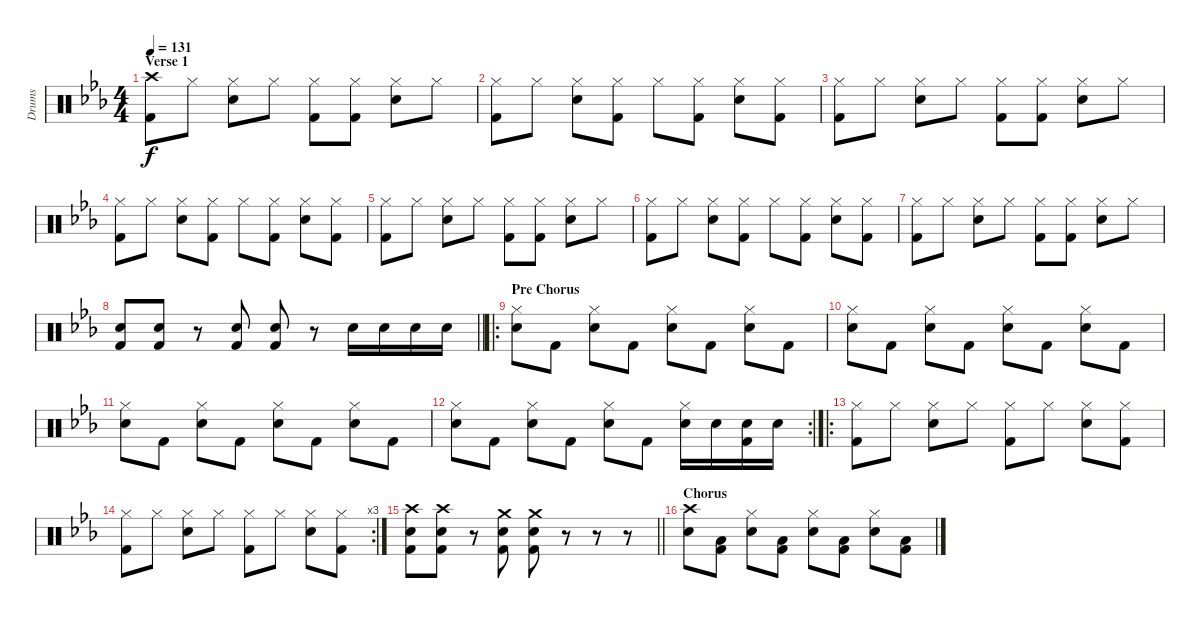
\track ("Drums" "Drums") {instrument percussion}
\staff
\articulation defaults
\ts (4 4)
\section ("" "Verse 1")
\tempo 131
\clef neutral
\ks eb
("Crash high (hit)" "Kick (hit) 2").8{dy f} "Hi-Hat (closed)".8 ("Snare (hit) 2" "Hi-Hat (closed)").8 "Hi-Hat (closed)".8 ("Hi-Hat (closed)" "Kick (hit) 2").8 ("Hi-Hat (closed)" "Kick (hit) 2").8 ("Snare (hit) 2" "Hi-Hat (closed)").8 "Hi-Hat (closed)".8 |
("Hi-Hat (closed)" "Kick (hit) 2").8 "Hi-Hat (closed)".8 ("Snare (hit) 2" "Hi-Hat (closed)").8 ("Hi-Hat (closed)" "Kick (hit) 2").8 "Hi-Hat (closed)".8 ("Hi-Hat (closed)" "Kick (hit) 2").8 ("Snare (hit) 2" "Hi-Hat (closed)").8 ("Hi-Hat (closed)" "Kick (hit) 2").8 |
("Hi-Hat (closed)" "Kick (hit) 2").8 "Hi-Hat (closed)".8 ("Snare (hit) 2" "Hi-Hat (closed)").8 "Hi-Hat (closed)".8 ("Hi-Hat (closed)" "Kick (hit) 2").8 ("Hi-Hat (closed)" "Kick (hit) 2").8 ("Snare (hit) 2" "Hi-Hat (closed)").8 "Hi-Hat (closed)".8 |
("Hi-Hat (closed)" "Kick (hit) 2").8 "Hi-Hat (closed)".8 ("Snare (hit) 2" "Hi-Hat (closed)").8 ("Hi-Hat (closed)" "Kick (hit) 2").8 "Hi-Hat (closed)".8 ("Hi-Hat (closed)" "Kick (hit) 2").8 ("Snare (hit) 2" "Hi-Hat (closed)").8 ("Hi-Hat (closed)" "Kick (hit) 2").8 |
("Hi-Hat (closed)" "Kick (hit) 2").8 "Hi-Hat (closed)".8 ("Snare (hit) 2" "Hi-Hat (closed)").8 "Hi-Hat (closed)".8 ("Hi-Hat (closed)" "Kick (hit) 2").8 ("Hi-Hat (closed)" "Kick (hit) 2").8 ("Snare (hit) 2" "Hi-Hat (closed)").8 "Hi-Hat (closed)".8 |
("Hi-Hat (closed)" "Kick (hit) 2").8 "Hi-Hat (closed)".8 ("Snare (hit) 2" "Hi-Hat (closed)").8 ("Hi-Hat (closed)" "Kick (hit) 2").8 "Hi-Hat (closed)".8 ("Hi-Hat (closed)" "Kick (hit) 2").8 ("Snare (hit) 2" "Hi-Hat (closed)").8 ("Hi-Hat (closed)" "Kick (hit) 2").8 |
("Hi-Hat (closed)" "Kick (hit) 2").8 "Hi-Hat (closed)".8 ("Snare (hit) 2" "Hi-Hat (closed)").8 "Hi-Hat (closed)".8 ("Hi-Hat (closed)" "Kick (hit) 2").8 ("Hi-Hat (closed)" "Kick (hit) 2").8 ("Snare (hit) 2" "Hi-Hat (closed)").8 "Hi-Hat (closed)".8 |
\barLineRight lightlight
("Snare (hit) 2" "Kick (hit) 2").8 ("Snare (hit) 2" "Kick (hit) 2").8 r.8 ("Snare (hit) 2" "Kick (hit) 2").8 ("Snare (hit) 2" "Kick (hit) 2").8 r.8 "Snare (hit) 2".16 "Snare (hit) 2".16 "Snare (hit) 2".16 "Snare (hit) 2".16 |
\ro
\section ("" "Pre Chorus")
("Snare (hit) 2" "Hi-Hat (closed)").8 "Kick (hit) 2".8 ("Snare (hit) 2" "Hi-Hat (closed)").8 "Kick (hit) 2".8 ("Snare (hit) 2" "Hi-Hat (closed)").8 "Kick (hit) 2".8 ("Snare (hit) 2" "Hi-Hat (closed)").8 "Kick (hit) 2".8 |
("Snare (hit) 2" "Hi-Hat (closed)").8 "Kick (hit) 2".8 ("Snare (hit) 2" "Hi-Hat (closed)").8 "Kick (hit) 2".8 ("Snare (hit) 2" "Hi-Hat (closed)").8 "Kick (hit) 2".8 ("Snare (hit) 2" "Hi-Hat (closed)").8 "Kick (hit) 2".8 |
("Snare (hit) 2" "Hi-Hat (closed)").8 "Kick (hit) 2".8 ("Snare (hit) 2" "Hi-Hat (closed)").8 "Kick (hit) 2".8 ("Snare (hit) 2" "Hi-Hat (closed)").8 "Kick (hit) 2".8 ("Snare (hit) 2" "Hi-Hat (closed)").8 "Kick (hit) 2".8 |
\rc 2
("Snare (hit) 2" "Hi-Hat (closed)").8 "Kick (hit) 2".8 ("Snare (hit) 2" "Hi-Hat (closed)").8 "Kick (hit) 2".8 ("Snare (hit) 2" "Hi-Hat (closed)").8 "Kick (hit) 2".8 ("Snare (hit) 2" "Hi-Hat (closed)").16 "Snare (hit) 2".16 ("Snare (hit) 2" "Kick (hit) 2").16 "Snare (hit) 2".16 |
\ro
("Hi-Hat (closed)" "Kick (hit) 2").8 "Hi-Hat (closed)".8 ("Snare (hit) 2" "Hi-Hat (closed)").8 "Hi-Hat (closed)".8 ("Hi-Hat (closed)" "Kick (hit) 2").8 "Hi-Hat (closed)".8 ("Snare (hit) 2" "Hi-Hat (closed)").8 ("Hi-Hat (closed)" "Kick (hit) 2").8 |
\rc 3
("Hi-Hat (closed)" "Kick (hit) 2").8 "Hi-Hat (closed)".8 ("Snare (hit) 2" "Hi-Hat (closed)").8 "Hi-Hat (closed)".8 ("Hi-Hat (closed)" "Kick (hit) 2").8 "Hi-Hat (closed)".8 ("Snare (hit) 2" "Hi-Hat (closed)").8 ("Hi-Hat (closed)" "Kick (hit) 2").8 |
\barLineRight lightlight
("Crash high (hit)" "Snare (hit) 2" "Kick (hit) 2").8 ("Crash high (hit)" "Snare (hit) 2" "Kick (hit) 2").8 r.8 ("Crash medium (hit)" "Snare (hit) 2" "Kick (hit) 2").8 ("Crash medium (hit)" "Snare (hit) 2" "Kick (hit) 2").8 r.8 r.8 r.8 |
\section ("" "Chorus")
("Crash high (hit)" "Snare (hit) 2").8 ("Low Floor Tom (hit)" "Kick (hit) 2").8 ("Snare (hit) 2" "Hi-Hat (closed)").8 ("Low Floor Tom (hit)" "Kick (hit) 2").8 ("Snare (hit) 2" "Hi-Hat (closed)").8 ("Low Floor Tom (hit)" "Kick (hit) 2").8 ("Snare (hit) 2" "Hi-Hat (closed)").8 ("Low Floor Tom (hit)" "Kick (hit) 2").8
